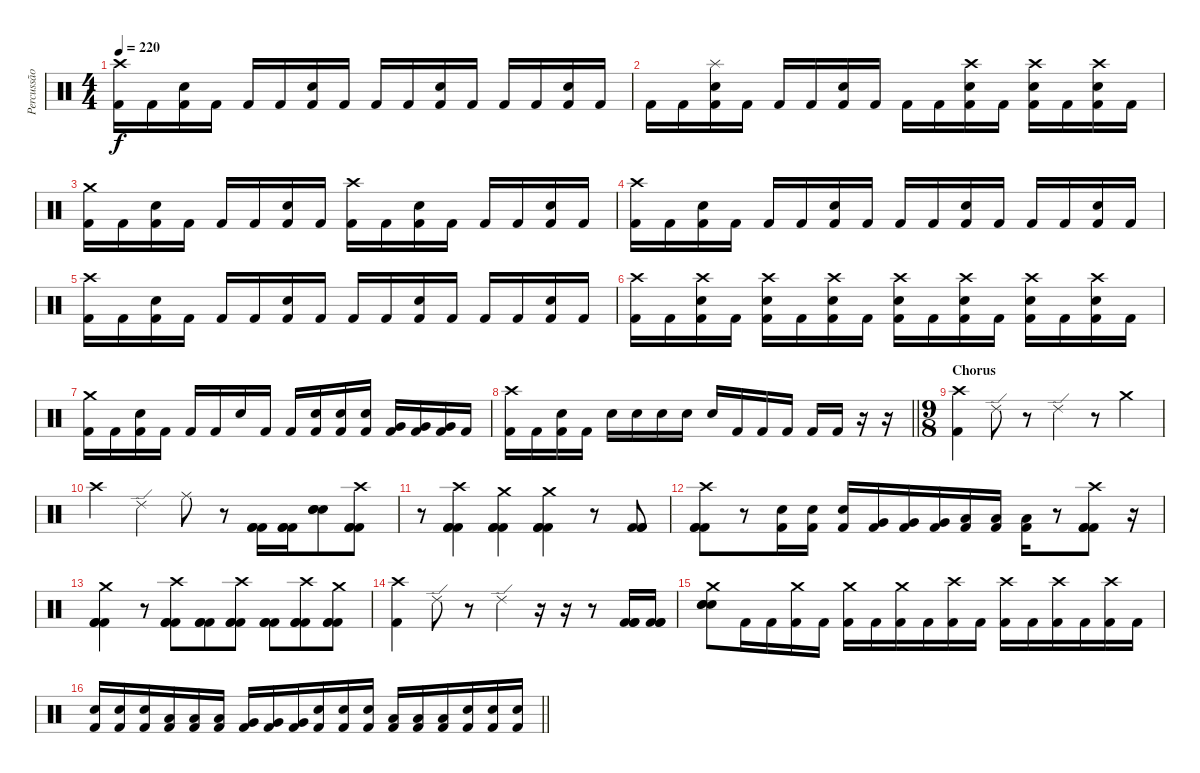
\track ("Percussão" "Percussão") {instrument percussion}
\staff {score}
\articulation defaults
\ts (4 4)
\tempo 220
\clef neutral
\ks c
("Crash high (hit)" "Kick (hit) 2").16{dy f} "Kick (hit) 2".16 ("Electric Snare (hit)" "Kick (hit) 2").16 "Kick (hit) 2".16 "Kick (hit) 2".16 "Kick (hit) 2".16 ("Electric Snare (hit)" "Kick (hit) 2").16 "Kick (hit) 2".16 "Kick (hit) 2".16 "Kick (hit) 2".16 ("Electric Snare (hit)" "Kick (hit) 2").16 "Kick (hit) 2".16 "Kick (hit) 2".16 "Kick (hit) 2".16 ("Electric Snare (hit)" "Kick (hit) 2").16 "Kick (hit) 2".16 |
"Kick (hit) 2".16 "Kick (hit) 2".16 ("Splash (hit)" "Electric Snare (hit)" "Kick (hit) 2").16 "Kick (hit) 2".16 "Kick (hit) 2".16 "Kick (hit) 2".16 ("Electric Snare (hit)" "Kick (hit) 2").16 "Kick (hit) 2".16 "Kick (hit) 2".16 "Kick (hit) 2".16 ("Crash high (hit)" "Electric Snare (hit)" "Kick (hit) 2").16 "Kick (hit) 2".16 ("Crash high (hit)" "Electric Snare (hit)" "Kick (hit) 2").16 "Kick (hit) 2".16 ("Crash high (hit)" "Electric Snare (hit)" "Kick (hit) 2").16 "Kick (hit) 2".16 |
("Crash medium (hit)" "Kick (hit) 2").16 "Kick (hit) 2".16 ("Electric Snare (hit)" "Kick (hit) 2").16 "Kick (hit) 2".16 "Kick (hit) 2".16 "Kick (hit) 2".16 ("Electric Snare (hit)" "Kick (hit) 2").16 "Kick (hit) 2".16 ("Crash high (hit)" "Kick (hit) 2").16 "Kick (hit) 2".16 ("Electric Snare (hit)" "Kick (hit) 2").16 "Kick (hit) 2".16 "Kick (hit) 2".16 "Kick (hit) 2".16 ("Electric Snare (hit)" "Kick (hit) 2").16 "Kick (hit) 2".16 |
("Crash high (hit)" "Kick (hit) 2").16 "Kick (hit) 2".16 ("Electric Snare (hit)" "Kick (hit) 2").16 "Kick (hit) 2".16 "Kick (hit) 2".16 "Kick (hit) 2".16 ("Electric Snare (hit)" "Kick (hit) 2").16 "Kick (hit) 2".16 "Kick (hit) 2".16 "Kick (hit) 2".16 ("Electric Snare (hit)" "Kick (hit) 2").16 "Kick (hit) 2".16 "Kick (hit) 2".16 "Kick (hit) 2".16 ("Electric Snare (hit)" "Kick (hit) 2").16 "Kick (hit) 2".16 |
("Crash high (hit)" "Kick (hit) 2").16 "Kick (hit) 2".16 ("Electric Snare (hit)" "Kick (hit) 2").16 "Kick (hit) 2".16 "Kick (hit) 2".16 "Kick (hit) 2".16 ("Electric Snare (hit)" "Kick (hit) 2").16 "Kick (hit) 2".16 "Kick (hit) 2".16 "Kick (hit) 2".16 ("Electric Snare (hit)" "Kick (hit) 2").16 "Kick (hit) 2".16 "Kick (hit) 2".16 "Kick (hit) 2".16 ("Electric Snare (hit)" "Kick (hit) 2").16 "Kick (hit) 2".16 |
("Crash high (hit)" "Kick (hit) 2").16 "Kick (hit) 2".16 ("Crash high (hit)" "Electric Snare (hit)" "Kick (hit) 2").16 "Kick (hit) 2".16 ("Crash high (hit)" "Electric Snare (hit)" "Kick (hit) 2").16 "Kick (hit) 2".16 ("Crash high (hit)" "Electric Snare (hit)" "Kick (hit) 2").16 "Kick (hit) 2".16 ("Crash high (hit)" "Electric Snare (hit)" "Kick (hit) 2").16 "Kick (hit) 2".16 ("Crash high (hit)" "Electric Snare (hit)" "Kick (hit) 2").16 "Kick (hit) 2".16 ("Crash high (hit)" "Electric Snare (hit)" "Kick (hit) 2").16 "Kick (hit) 2".16 ("Crash high (hit)" "Electric Snare (hit)" "Kick (hit) 2").16 "Kick (hit) 2".16 |
("Crash medium (hit)" "Kick (hit) 2").16 "Kick (hit) 2".16 ("Electric Snare (hit)" "Kick (hit) 2").16 "Kick (hit) 2".16 "Kick (hit) 2".16 "Kick (hit) 2".16 "Electric Snare (hit)".16 "Kick (hit) 2".16 "Kick (hit) 2".16 ("Electric Snare (hit)" "Kick (hit) 2").16 ("Electric Snare (hit)" "Kick (hit) 2").16 ("Electric Snare (hit)" "Kick (hit) 2").16 ("Very Low Tom (hit)" "Kick (hit) 2").16 ("Very Low Tom (hit)" "Kick (hit) 2").16 ("Very Low Tom (hit)" "Kick (hit) 2").16 "Kick (hit) 2".16 |
\barLineRight lightlight
("Crash high (hit)" "Kick (hit) 2").16 "Kick (hit) 2".16 ("Electric Snare (hit)" "Kick (hit) 2").16 "Kick (hit) 2".16 "Electric Snare (hit)".16 "Electric Snare (hit)".16 "Electric Snare (hit)".16 "Electric Snare (hit)".16 "Electric Snare (hit)".16 "Kick (hit) 2".16 "Kick (hit) 2".16 "Kick (hit) 2".16 "Kick (hit) 2".16 "Kick (hit) 2".16 r.16 r.16 |
\ts (9 8)
\section ("" "Chorus")
("Crash high (hit)" "Kick (hit) 2").4 "Ride (edge) 2".8 r.8 "Ride (edge) 2".4 r.8 "Crash medium (hit)".4 |
"Crash high (hit)".4 "Ride (edge) 2".4 "Ride (middle)".8 r.8 ("Kick (hit) 2" "Kick (hit) 2" "Kick (hit) 2").16 ("Kick (hit) 2" "Kick (hit) 2" "Kick (hit) 2").16 ("Electric Snare (hit)" "Electric Snare (hit)" "Electric Snare (hit)").8 ("Crash high (hit)" "Kick (hit) 2" "Kick (hit) 2" "Kick (hit) 2").8 |
r.8 ("Crash high (hit)" "Kick (hit) 2" "Kick (hit) 2" "Kick (hit) 2").4 ("Crash medium (hit)" "Kick (hit) 2" "Kick (hit) 2" "Kick (hit) 2").4 ("Crash medium (hit)" "Kick (hit) 2" "Kick (hit) 2" "Kick (hit) 2").4 r.8 ("Kick (hit) 2" "Kick (hit) 2" "Kick (hit) 2").8 |
("Crash high (hit)" "Kick (hit) 2" "Kick (hit) 2" "Kick (hit) 2").8 r.8 ("Electric Snare (hit)" "Kick (hit) 2").16 ("Electric Snare (hit)" "Kick (hit) 2").16 ("Electric Snare (hit)" "Kick (hit) 2").16 ("Very Low Tom (hit)" "Kick (hit) 2").16 ("Very Low Tom (hit)" "Kick (hit) 2").16 ("Very Low Tom (hit)" "Kick (hit) 2").16 ("Low Tom (hit)" "Kick (hit) 2").16 ("Low Tom (hit)" "Kick (hit) 2").16 ("Low Tom (hit)" "Kick (hit) 2").16 r.8 ("Crash high (hit)" "Kick (hit) 2" "Kick (hit) 2" "Kick (hit) 2").8 r.16 |
("Crash medium (hit)" "Kick (hit) 2" "Kick (hit) 2" "Kick (hit) 2").4 r.8 ("Crash high (hit)" "Kick (hit) 2" "Kick (hit) 2" "Kick (hit) 2").8 ("Kick (hit) 2" "Kick (hit) 2" "Kick (hit) 2").8 ("Crash high (hit)" "Kick (hit) 2" "Kick (hit) 2" "Kick (hit) 2").8 ("Kick (hit) 2" "Kick (hit) 2" "Kick (hit) 2").8 ("Crash high (hit)" "Kick (hit) 2" "Kick (hit) 2" "Kick (hit) 2").8 ("Crash medium (hit)" "Kick (hit) 2" "Kick (hit) 2" "Kick (hit) 2").8 |
("Crash high (hit)" "Kick (hit) 2").4 "Ride (edge) 2".8 r.8 "Ride (edge) 2".4 r.16 r.16 r.8 ("Kick (hit) 2" "Kick (hit) 2" "Kick (hit) 2").16 ("Kick (hit) 2" "Kick (hit) 2" "Kick (hit) 2").16 |
("Crash medium (hit)" "Electric Snare (hit)" "Electric Snare (hit)" "Electric Snare (hit)").8 "Kick (hit) 2".16 "Kick (hit) 2".16 ("Crash medium (hit)" "Kick (hit) 2").16 "Kick (hit) 2".16 ("Crash medium (hit)" "Kick (hit) 2").16 "Kick (hit) 2".16 ("Crash medium (hit)" "Kick (hit) 2").16 "Kick (hit) 2".16 ("Crash high (hit)" "Kick (hit) 2").16 "Kick (hit) 2".16 ("Crash high (hit)" "Kick (hit) 2").16 "Kick (hit) 2".16 ("Crash high (hit)" "Kick (hit) 2").16 "Kick (hit) 2".16 ("Crash high (hit)" "Kick (hit) 2").16 "Kick (hit) 2".16 |
\barLineRight lightlight
("Electric Snare (hit)" "Kick (hit) 2").16 ("Electric Snare (hit)" "Kick (hit) 2").16 ("Electric Snare (hit)" "Kick (hit) 2").16 ("Low Tom (hit)" "Kick (hit) 2").16 ("Low Tom (hit)" "Kick (hit) 2").16 ("Low Tom (hit)" "Kick (hit) 2").16 ("Very Low Tom (hit)" "Kick (hit) 2").16 ("Very Low Tom (hit)" "Kick (hit) 2").16 ("Very Low Tom (hit)" "Kick (hit) 2").16 ("Electric Snare (hit)" "Kick (hit) 2").16 ("Electric Snare (hit)" "Kick (hit) 2").16 ("Electric Snare (hit)" "Kick (hit) 2").16 ("Low Tom (hit)" "Kick (hit) 2").16 ("Low Tom (hit)" "Kick (hit) 2").16 ("Low Tom (hit)" "Kick (hit) 2").16 ("Electric Snare (hit)" "Kick (hit) 2").16 ("Electric Snare (hit)" "Kick (hit) 2").16 ("Electric Snare (hit)" "Kick (hit) 2").16
